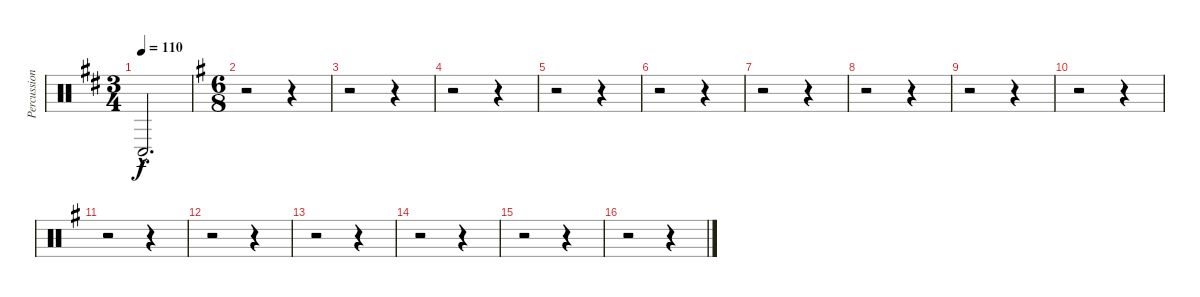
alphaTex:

\track ("Percussion" "Percussion") {instrument percussion}
\staff {score}
\articulation defaults
\ts (3 4)
\tempo 110
\clef neutral
\ks d "Conga low (hit)"{hac}.2{d dy f}
|
\ts (6 8)
\ks g
r.2 r.4 |
r.2 r.4 |
r.2 r.4 |
r.2 r.4 |
r.2 r.4 |
r.2 r.4 |
r.2 r.4 |
r.2 r.4 |
r.2 r.4 |
r.2 r.4 |
r.2 r.4 |
r.2 r.4 |
r.2 r.4 |
r.2 r.4 |
r.2 r.4
